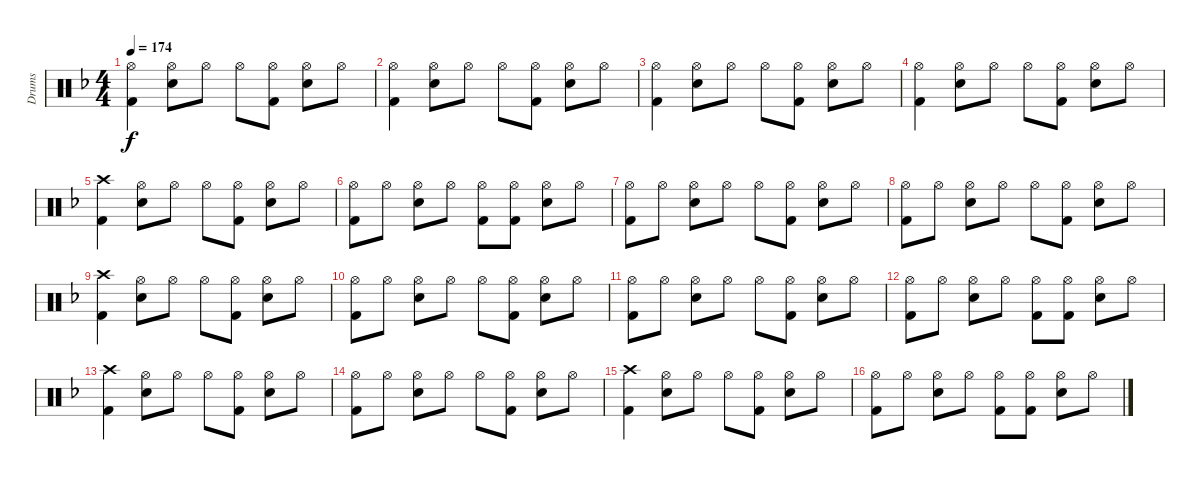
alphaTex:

\track ("Drums" "Drums") {instrument percussion}
\staff {score}
\articulation defaults
\ts (4 4)
\tempo 174
\clef neutral
\ks dminor
("Kick (hit) 2" "Hi-Hat (open)").4{dy f} ("Snare (hit) 2" "Hi-Hat (open)").8 "Hi-Hat (open)".8 "Hi-Hat (open)".8 ("Kick (hit) 2" "Hi-Hat (open)").8 ("Snare (hit) 2" "Hi-Hat (open)").8 "Hi-Hat (open)".8 |
("Kick (hit) 2" "Hi-Hat (open)").4 ("Snare (hit) 2" "Hi-Hat (open)").8 "Hi-Hat (open)".8 "Hi-Hat (open)".8 ("Kick (hit) 2" "Hi-Hat (open)").8 ("Snare (hit) 2" "Hi-Hat (open)").8 "Hi-Hat (open)".8 |
("Kick (hit) 2" "Hi-Hat (open)").4 ("Snare (hit) 2" "Hi-Hat (open)").8 "Hi-Hat (open)".8 "Hi-Hat (open)".8 ("Kick (hit) 2" "Hi-Hat (open)").8 ("Snare (hit) 2" "Hi-Hat (open)").8 "Hi-Hat (open)".8 |
("Kick (hit) 2" "Hi-Hat (open)").4 ("Snare (hit) 2" "Hi-Hat (open)").8 "Hi-Hat (open)".8 "Hi-Hat (open)".8 ("Kick (hit) 2" "Hi-Hat (open)").8 ("Snare (hit) 2" "Hi-Hat (open)").8 "Hi-Hat (open)".8 |
("Kick (hit) 2" "Crash high (hit)").4 ("Snare (hit) 2" "Hi-Hat (open)").8 "Hi-Hat (open)".8 "Hi-Hat (open)".8 ("Kick (hit) 2" "Hi-Hat (open)").8 ("Snare (hit) 2" "Hi-Hat (open)").8 "Hi-Hat (open)".8 |
("Kick (hit) 2" "Hi-Hat (open)").8 "Hi-Hat (open)".8 ("Snare (hit) 2" "Hi-Hat (open)").8 "Hi-Hat (open)".8 ("Kick (hit) 2" "Hi-Hat (open)").8 ("Kick (hit) 2" "Hi-Hat (open)").8 ("Snare (hit) 2" "Hi-Hat (open)").8 "Hi-Hat (open)".8 |
("Kick (hit) 2" "Hi-Hat (open)").8 "Hi-Hat (open)".8 ("Snare (hit) 2" "Hi-Hat (open)").8 "Hi-Hat (open)".8 "Hi-Hat (open)".8 ("Kick (hit) 2" "Hi-Hat (open)").8 ("Snare (hit) 2" "Hi-Hat (open)").8 "Hi-Hat (open)".8 |
("Kick (hit) 2" "Hi-Hat (open)").8 "Hi-Hat (open)".8 ("Snare (hit) 2" "Hi-Hat (open)").8 "Hi-Hat (open)".8 "Hi-Hat (open)".8 ("Kick (hit) 2" "Hi-Hat (open)").8 ("Snare (hit) 2" "Hi-Hat (open)").8 "Hi-Hat (open)".8 |
("Kick (hit) 2" "Crash high (hit)").4 ("Snare (hit) 2" "Hi-Hat (open)").8 "Hi-Hat (open)".8 "Hi-Hat (open)".8 ("Kick (hit) 2" "Hi-Hat (open)").8 ("Snare (hit) 2" "Hi-Hat (open)").8 "Hi-Hat (open)".8 |
("Kick (hit) 2" "Hi-Hat (open)").8 "Hi-Hat (open)".8 ("Snare (hit) 2" "Hi-Hat (open)").8 "Hi-Hat (open)".8 "Hi-Hat (open)".8 ("Kick (hit) 2" "Hi-Hat (open)").8 ("Snare (hit) 2" "Hi-Hat (open)").8 "Hi-Hat (open)".8 |
("Kick (hit) 2" "Hi-Hat (open)").8 "Hi-Hat (open)".8 ("Snare (hit) 2" "Hi-Hat (open)").8 "Hi-Hat (open)".8 "Hi-Hat (open)".8 ("Kick (hit) 2" "Hi-Hat (open)").8 ("Snare (hit) 2" "Hi-Hat (open)").8 "Hi-Hat (open)".8 |
("Kick (hit) 2" "Hi-Hat (open)").8 "Hi-Hat (open)".8 ("Snare (hit) 2" "Hi-Hat (open)").8 "Hi-Hat (open)".8 ("Kick (hit) 2" "Hi-Hat (open)").8 ("Kick (hit) 2" "Hi-Hat (open)").8 ("Snare (hit) 2" "Hi-Hat (open)").8 "Hi-Hat (open)".8 |
("Kick (hit) 2" "Crash high (hit)").4 ("Snare (hit) 2" "Hi-Hat (open)").8 "Hi-Hat (open)".8 "Hi-Hat (open)".8 ("Kick (hit) 2" "Hi-Hat (open)").8 ("Snare (hit) 2" "Hi-Hat (open)").8 "Hi-Hat (open)".8 |
("Kick (hit) 2" "Hi-Hat (open)").8 "Hi-Hat (open)".8 ("Snare (hit) 2" "Hi-Hat (open)").8 "Hi-Hat (open)".8 "Hi-Hat (open)".8 ("Kick (hit) 2" "Hi-Hat (open)").8 ("Snare (hit) 2" "Hi-Hat (open)").8 "Hi-Hat (open)".8 |
("Kick (hit) 2" "Crash high (hit)").4 ("Snare (hit) 2" "Hi-Hat (open)").8 "Hi-Hat (open)".8 "Hi-Hat (open)".8 ("Kick (hit) 2" "Hi-Hat (open)").8 ("Snare (hit) 2" "Hi-Hat (open)").8 "Hi-Hat (open)".8 |
("Kick (hit) 2" "Hi-Hat (open)").8 "Hi-Hat (open)".8 ("Snare (hit) 2" "Hi-Hat (open)").8 "Hi-Hat (open)".8 ("Kick (hit) 2" "Hi-Hat (open)").8 ("Kick (hit) 2" "Hi-Hat (open)").8 ("Snare (hit) 2" "Hi-Hat (open)").8 "Hi-Hat (open)".8
